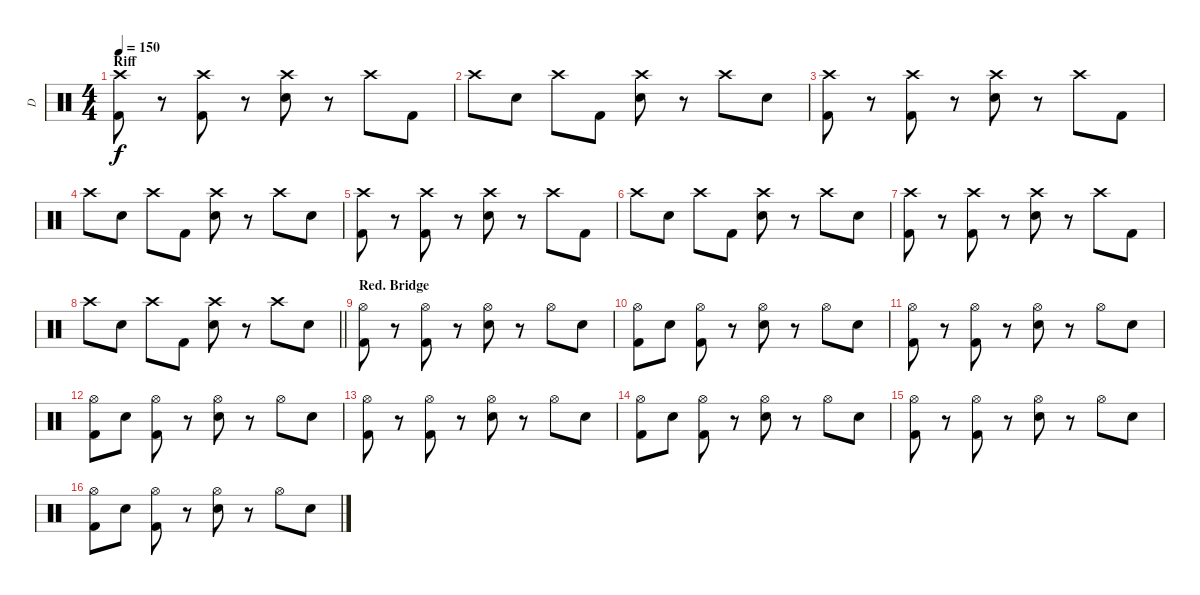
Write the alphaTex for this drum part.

\track ("D" "D") {instrument percussion}
\staff {score}
\articulation defaults
\ts (4 4)
\section ("" "Riff")
\tempo 150
\clef neutral
\ks c
("Crash high (hit)" "Kick (hit) 2").8{dy f} r.8 ("Crash high (hit)" "Kick (hit) 2").8 r.8 ("Crash high (hit)" "Snare (hit) 2").8 r.8 "Crash high (hit)".8 "Kick (hit) 2".8 |
"Crash high (hit)".8 "Snare (hit) 2".8 "Crash high (hit)".8 "Kick (hit) 2".8 ("Crash high (hit)" "Snare (hit) 2").8 r.8 "Crash high (hit)".8 "Snare (hit) 2".8 |
("Crash high (hit)" "Kick (hit) 2").8 r.8 ("Crash high (hit)" "Kick (hit) 2").8 r.8 ("Crash high (hit)" "Snare (hit) 2").8 r.8 "Crash high (hit)".8 "Kick (hit) 2".8 |
"Crash high (hit)".8 "Snare (hit) 2".8 "Crash high (hit)".8 "Kick (hit) 2".8 ("Crash high (hit)" "Snare (hit) 2").8 r.8 "Crash high (hit)".8 "Snare (hit) 2".8 |
("Crash high (hit)" "Kick (hit) 2").8 r.8 ("Crash high (hit)" "Kick (hit) 2").8 r.8 ("Crash high (hit)" "Snare (hit) 2").8 r.8 "Crash high (hit)".8 "Kick (hit) 2".8 |
"Crash high (hit)".8 "Snare (hit) 2".8 "Crash high (hit)".8 "Kick (hit) 2".8 ("Crash high (hit)" "Snare (hit) 2").8 r.8 "Crash high (hit)".8 "Snare (hit) 2".8 |
("Crash high (hit)" "Kick (hit) 2").8 r.8 ("Crash high (hit)" "Kick (hit) 2").8 r.8 ("Crash high (hit)" "Snare (hit) 2").8 r.8 "Crash high (hit)".8 "Kick (hit) 2".8 |
\barLineRight lightlight "Crash high (hit)".8 "Snare (hit) 2".8 "Crash high (hit)".8 "Kick (hit) 2".8
("Crash high (hit)" "Snare (hit) 2").8 r.8 "Crash high (hit)".8 "Snare (hit) 2".8 |
\section ("" "Red. Bridge")
("Hi-Hat (open)" "Kick (hit) 2").8 r.8 ("Hi-Hat (open)" "Kick (hit) 2").8 r.8 ("Hi-Hat (open)" "Snare (hit) 2").8 r.8 "Hi-Hat (open)".8 "Snare (hit) 2".8 |
("Hi-Hat (open)" "Kick (hit) 2").8 "Snare (hit) 2".8 ("Hi-Hat (open)" "Kick (hit) 2").8 r.8 ("Hi-Hat (open)" "Snare (hit) 2").8 r.8 "Hi-Hat (open)".8 "Snare (hit) 2".8 |
("Hi-Hat (open)" "Kick (hit) 2").8 r.8 ("Hi-Hat (open)" "Kick (hit) 2").8 r.8 ("Hi-Hat (open)" "Snare (hit) 2").8 r.8 "Hi-Hat (open)".8 "Snare (hit) 2".8 |
("Hi-Hat (open)" "Kick (hit) 2").8 "Snare (hit) 2".8 ("Hi-Hat (open)" "Kick (hit) 2").8 r.8 ("Hi-Hat (open)" "Snare (hit) 2").8 r.8 "Hi-Hat (open)".8 "Snare (hit) 2".8 |
("Hi-Hat (open)" "Kick (hit) 2").8 r.8 ("Hi-Hat (open)" "Kick (hit) 2").8 r.8 ("Hi-Hat (open)" "Snare (hit) 2").8 r.8 "Hi-Hat (open)".8 "Snare (hit) 2".8 |
("Hi-Hat (open)" "Kick (hit) 2").8 "Snare (hit) 2".8 ("Hi-Hat (open)" "Kick (hit) 2").8 r.8 ("Hi-Hat (open)" "Snare (hit) 2").8 r.8 "Hi-Hat (open)".8 "Snare (hit) 2".8 |
("Hi-Hat (open)" "Kick (hit) 2").8 r.8 ("Hi-Hat (open)" "Kick (hit) 2").8 r.8 ("Hi-Hat (open)" "Snare (hit) 2").8 r.8 "Hi-Hat (open)".8 "Snare (hit) 2".8 |
("Hi-Hat (open)" "Kick (hit) 2").8 "Snare (hit) 2".8 ("Hi-Hat (open)" "Kick (hit) 2").8 r.8 ("Hi-Hat (open)" "Snare (hit) 2").8 r.8 "Hi-Hat (open)".8 "Snare (hit) 2".8
